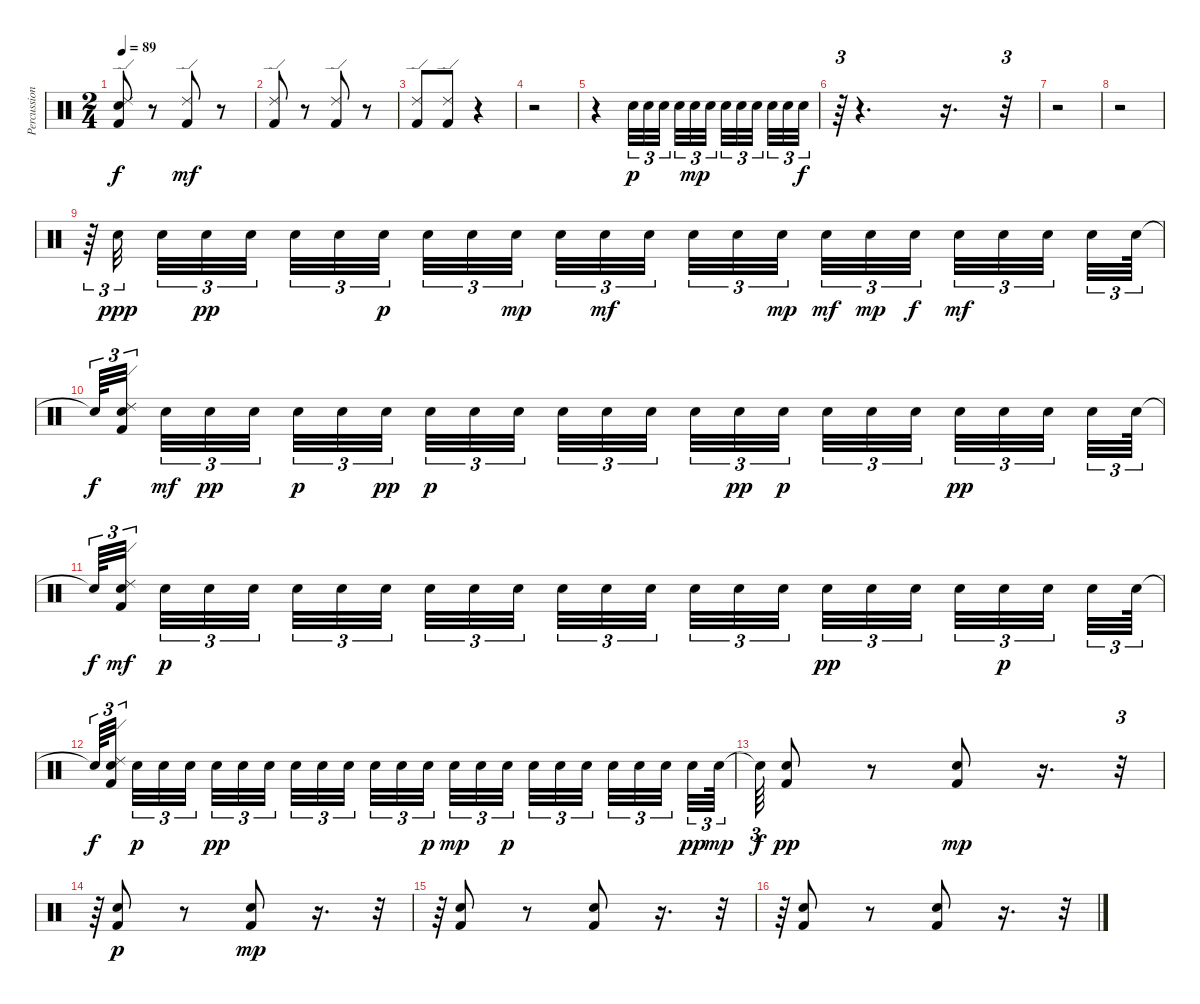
\track ("Percussion" "Percussion") {instrument percussion}
\staff {score}
\articulation defaults
\ts (2 4)
\tempo 89
\clef neutral
\ks c
("Kick (hit) 2" "Ride (edge) 2" "Snare (hit) 2").8{dy f} r.8 ("Kick (hit) 2" "Ride (edge) 2").8{dy mf} r.8 |
("Kick (hit) 2" "Ride (edge) 2").8 r.8 ("Kick (hit) 2" "Ride (edge) 2").8 r.8 |
("Kick (hit) 2" "Ride (edge) 2").8 ("Kick (hit) 2" "Ride (edge) 2").8 r.4 |
r.2 |
r.4 "Snare (hit) 2".32{tu (3 2) dy p} "Snare (hit) 2".32{tu (3 2)} "Snare (hit) 2".32{tu (3 2) beam splitsecondary} "Snare (hit) 2".32{tu (3 2)} "Snare (hit) 2".32{tu (3 2) dy mp} "Snare (hit) 2".32{tu (3 2) beam splitsecondary} "Snare (hit) 2".32{tu (3 2)} "Snare (hit) 2".32{tu (3 2)} "Snare (hit) 2".32{tu (3 2) beam splitsecondary} "Snare (hit) 2".32{tu (3 2)} "Snare (hit) 2".32{tu (3 2)} "Snare (hit) 2".32{tu (3 2) dy f} |
r.64{tu (3 2)} r.4{d} r.16{d} r.32{tu (3 2)} |
r.2 |
r.2 |
r.64{tu (3 2)} "Snare (hit) 2".32{tu (3 2) dy ppp beam splitsecondary} "Snare (hit) 2".32{tu (3 2)} "Snare (hit) 2".32{tu (3 2) dy pp} "Snare (hit) 2".32{tu (3 2) beam splitsecondary} "Snare (hit) 2".32{tu (3 2)} "Snare (hit) 2".32{tu (3 2)} "Snare (hit) 2".32{tu (3 2) dy p beam splitsecondary} "Snare (hit) 2".32{tu (3 2)} "Snare (hit) 2".32{tu (3 2)} "Snare (hit) 2".32{tu (3 2) dy mp beam splitsecondary} "Snare (hit) 2".32{tu (3 2)} "Snare (hit) 2".32{tu (3 2) dy mf} "Snare (hit) 2".32{tu (3 2) beam splitsecondary} "Snare (hit) 2".32{tu (3 2)} "Snare (hit) 2".32{tu (3 2)} "Snare (hit) 2".32{tu (3 2) dy mp beam splitsecondary} "Snare (hit) 2".32{tu (3 2) dy mf} "Snare (hit) 2".32{tu (3 2) dy mp} "Snare (hit) 2".32{tu (3 2) dy f beam splitsecondary} "Snare (hit) 2".32{tu (3 2) dy mf} "Snare (hit) 2".32{tu (3 2)} "Snare (hit) 2".32{tu (3 2) beam splitsecondary} "Snare (hit) 2".32{tu (3 2)} "Snare (hit) 2".64{tu (3 2)} |
"Snare (hit)"{t}.64{tu (3 2) dy f} ("Kick (hit) 2" "Ride (edge) 2" "Snare (hit) 2").32{tu (3 2) beam splitsecondary} "Snare (hit) 2".32{tu (3 2) dy mf} "Snare (hit) 2".32{tu (3 2) dy pp} "Snare (hit) 2".32{tu (3 2) beam splitsecondary} "Snare (hit) 2".32{tu (3 2) dy p} "Snare (hit) 2".32{tu (3 2)} "Snare (hit) 2".32{tu (3 2) dy pp beam splitsecondary} "Snare (hit) 2".32{tu (3 2) dy p} "Snare (hit) 2".32{tu (3 2)} "Snare (hit) 2".32{tu (3 2) beam splitsecondary} "Snare (hit) 2".32{tu (3 2)} "Snare (hit) 2".32{tu (3 2)} "Snare (hit) 2".32{tu (3 2) beam splitsecondary} "Snare (hit) 2".32{tu (3 2)} "Snare (hit) 2".32{tu (3 2) dy pp} "Snare (hit) 2".32{tu (3 2) dy p beam splitsecondary} "Snare (hit) 2".32{tu (3 2)} "Snare (hit) 2".32{tu (3 2)} "Snare (hit) 2".32{tu (3 2) beam splitsecondary} "Snare (hit) 2".32{tu (3 2) dy pp} "Snare (hit) 2".32{tu (3 2)} "Snare (hit) 2".32{tu (3 2) beam splitsecondary} "Snare (hit) 2".32{tu (3 2)} "Snare (hit) 2".64{tu (3 2)} |
"Snare (hit)"{t}.64{tu (3 2) dy f} ("Kick (hit) 2" "Ride (edge) 2" "Snare (hit) 2").32{tu (3 2) dy mf beam splitsecondary} "Snare (hit) 2".32{tu (3 2) dy p} "Snare (hit) 2".32{tu (3 2)} "Snare (hit) 2".32{tu (3 2) beam splitsecondary} "Snare (hit) 2".32{tu (3 2)} "Snare (hit) 2".32{tu (3 2)} "Snare (hit) 2".32{tu (3 2) beam splitsecondary} "Snare (hit) 2".32{tu (3 2)} "Snare (hit) 2".32{tu (3 2)} "Snare (hit) 2".32{tu (3 2) beam splitsecondary} "Snare (hit) 2".32{tu (3 2)} "Snare (hit) 2".32{tu (3 2)} "Snare (hit) 2".32{tu (3 2) beam splitsecondary} "Snare (hit) 2".32{tu (3 2)} "Snare (hit) 2".32{tu (3 2)} "Snare (hit) 2".32{tu (3 2) beam splitsecondary} "Snare (hit) 2".32{tu (3 2) dy pp} "Snare (hit) 2".32{tu (3 2)} "Snare (hit) 2".32{tu (3 2) beam splitsecondary} "Snare (hit) 2".32{tu (3 2)} "Snare (hit) 2".32{tu (3 2) dy p} "Snare (hit) 2".32{tu (3 2) beam splitsecondary} "Snare (hit) 2".32{tu (3 2)} "Snare (hit) 2".64{tu (3 2)} |
"Snare (hit)"{t}.64{tu (3 2) dy f} ("Kick (hit) 2" "Ride (edge) 2" "Snare (hit) 2").32{tu (3 2) beam splitsecondary} "Snare (hit) 2".32{tu (3 2) dy p} "Snare (hit) 2".32{tu (3 2)} "Snare (hit) 2".32{tu (3 2) beam splitsecondary} "Snare (hit) 2".32{tu (3 2) dy pp} "Snare (hit) 2".32{tu (3 2)} "Snare (hit) 2".32{tu (3 2) beam splitsecondary} "Snare (hit) 2".32{tu (3 2)} "Snare (hit) 2".32{tu (3 2)} "Snare (hit) 2".32{tu (3 2) beam splitsecondary} "Snare (hit) 2".32{tu (3 2)} "Snare (hit) 2".32{tu (3 2)} "Snare (hit) 2".32{tu (3 2) dy p beam splitsecondary} "Snare (hit) 2".32{tu (3 2) dy mp} "Snare (hit) 2".32{tu (3 2)} "Snare (hit) 2".32{tu (3 2) dy p beam splitsecondary} "Snare (hit) 2".32{tu (3 2)} "Snare (hit) 2".32{tu (3 2)} "Snare (hit) 2".32{tu (3 2) beam splitsecondary} "Snare (hit) 2".32{tu (3 2)} "Snare (hit) 2".32{tu (3 2)} "Snare (hit) 2".32{tu (3 2) beam splitsecondary} "Snare (hit) 2".32{tu (3 2) dy pp} "Snare (hit) 2".64{tu (3 2) dy mp} |
"Snare (hit)"{t}.64{tu (3 2) dy f} ("Kick (hit) 2" "Snare (hit) 2").8{dy pp} r.8 ("Kick (hit) 2" "Snare (hit) 2").8{dy mp} r.16{d} r.32{tu (3 2)} |
r.64{tu (3 2)} ("Kick (hit) 2" "Snare (hit) 2").8{dy p} r.8 ("Kick (hit) 2" "Snare (hit) 2").8{dy mp} r.16{d} r.32{tu (3 2)} |
r.64{tu (3 2)} ("Kick (hit) 2" "Snare (hit) 2").8 r.8 ("Kick (hit) 2" "Snare (hit) 2").8 r.16{d} r.32{tu (3 2)} |
r.64{tu (3 2)} ("Kick (hit) 2" "Snare (hit) 2").8 r.8 ("Kick (hit) 2" "Snare (hit) 2").8 r.16{d} r.32{tu (3 2)}
